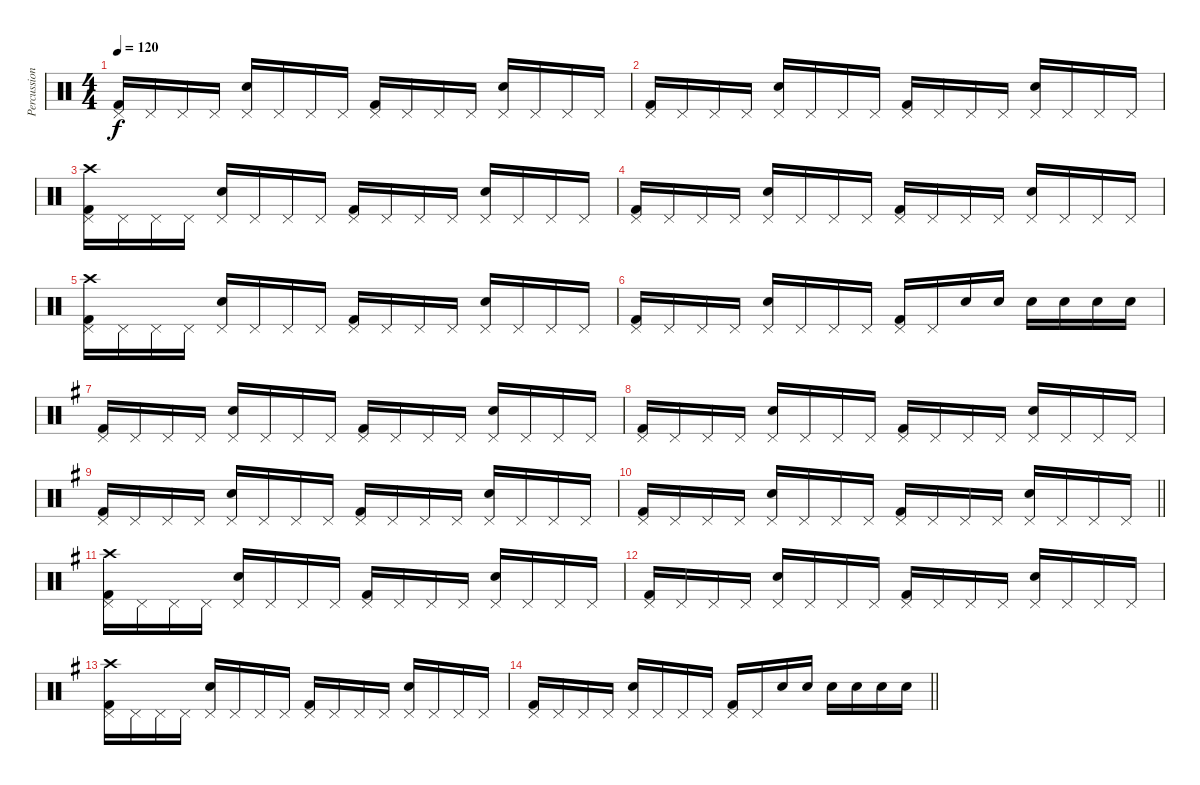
\track ("Percussion" "Percussion") {instrument percussion}
\staff {score}
\articulation defaults
\ts (4 4)
\tempo 120
\clef neutral
\ks c
("Pedal Hi-Hat (hit)" "Kick (hit) 2").16{dy f} "Pedal Hi-Hat (hit)".16 "Pedal Hi-Hat (hit)".16 "Pedal Hi-Hat (hit)".16 ("Pedal Hi-Hat (hit)" "Electric Snare (hit)").16 "Pedal Hi-Hat (hit)".16 "Pedal Hi-Hat (hit)".16 "Pedal Hi-Hat (hit)".16 ("Pedal Hi-Hat (hit)" "Kick (hit) 2").16 "Pedal Hi-Hat (hit)".16 "Pedal Hi-Hat (hit)".16 "Pedal Hi-Hat (hit)".16 ("Pedal Hi-Hat (hit)" "Electric Snare (hit)").16 "Pedal Hi-Hat (hit)".16 "Pedal Hi-Hat (hit)".16 "Pedal Hi-Hat (hit)".16 |
("Pedal Hi-Hat (hit)" "Kick (hit) 2").16 "Pedal Hi-Hat (hit)".16 "Pedal Hi-Hat (hit)".16 "Pedal Hi-Hat (hit)".16 ("Pedal Hi-Hat (hit)" "Electric Snare (hit)").16 "Pedal Hi-Hat (hit)".16 "Pedal Hi-Hat (hit)".16 "Pedal Hi-Hat (hit)".16 ("Pedal Hi-Hat (hit)" "Kick (hit) 2").16 "Pedal Hi-Hat (hit)".16 "Pedal Hi-Hat (hit)".16 "Pedal Hi-Hat (hit)".16 ("Pedal Hi-Hat (hit)" "Electric Snare (hit)").16 "Pedal Hi-Hat (hit)".16 "Pedal Hi-Hat (hit)".16 "Pedal Hi-Hat (hit)".16 |
("Crash high (hit)" "Pedal Hi-Hat (hit)" "Kick (hit) 2").16 "Pedal Hi-Hat (hit)".16 "Pedal Hi-Hat (hit)".16 "Pedal Hi-Hat (hit)".16 ("Pedal Hi-Hat (hit)" "Electric Snare (hit)").16 "Pedal Hi-Hat (hit)".16 "Pedal Hi-Hat (hit)".16 "Pedal Hi-Hat (hit)".16 ("Pedal Hi-Hat (hit)" "Kick (hit) 2").16 "Pedal Hi-Hat (hit)".16 "Pedal Hi-Hat (hit)".16 "Pedal Hi-Hat (hit)".16 ("Pedal Hi-Hat (hit)" "Electric Snare (hit)").16 "Pedal Hi-Hat (hit)".16 "Pedal Hi-Hat (hit)".16 "Pedal Hi-Hat (hit)".16 |
("Pedal Hi-Hat (hit)" "Kick (hit) 2").16 "Pedal Hi-Hat (hit)".16 "Pedal Hi-Hat (hit)".16 "Pedal Hi-Hat (hit)".16 ("Pedal Hi-Hat (hit)" "Electric Snare (hit)").16 "Pedal Hi-Hat (hit)".16 "Pedal Hi-Hat (hit)".16 "Pedal Hi-Hat (hit)".16 ("Pedal Hi-Hat (hit)" "Kick (hit) 2").16 "Pedal Hi-Hat (hit)".16 "Pedal Hi-Hat (hit)".16 "Pedal Hi-Hat (hit)".16 ("Pedal Hi-Hat (hit)" "Electric Snare (hit)").16 "Pedal Hi-Hat (hit)".16 "Pedal Hi-Hat (hit)".16 "Pedal Hi-Hat (hit)".16 |
("Crash high (hit)" "Pedal Hi-Hat (hit)" "Kick (hit) 2").16 "Pedal Hi-Hat (hit)".16 "Pedal Hi-Hat (hit)".16 "Pedal Hi-Hat (hit)".16 ("Pedal Hi-Hat (hit)" "Electric Snare (hit)").16 "Pedal Hi-Hat (hit)".16 "Pedal Hi-Hat (hit)".16 "Pedal Hi-Hat (hit)".16 ("Pedal Hi-Hat (hit)" "Kick (hit) 2").16 "Pedal Hi-Hat (hit)".16 "Pedal Hi-Hat (hit)".16 "Pedal Hi-Hat (hit)".16 ("Pedal Hi-Hat (hit)" "Electric Snare (hit)").16 "Pedal Hi-Hat (hit)".16 "Pedal Hi-Hat (hit)".16 "Pedal Hi-Hat (hit)".16 |
("Pedal Hi-Hat (hit)" "Kick (hit) 2").16 "Pedal Hi-Hat (hit)".16 "Pedal Hi-Hat (hit)".16 "Pedal Hi-Hat (hit)".16 ("Pedal Hi-Hat (hit)" "Electric Snare (hit)").16 "Pedal Hi-Hat (hit)".16 "Pedal Hi-Hat (hit)".16 "Pedal Hi-Hat (hit)".16 ("Pedal Hi-Hat (hit)" "Kick (hit) 2").16 "Pedal Hi-Hat (hit)".16 "Electric Snare (hit)".16 "Electric Snare (hit)".16 "Electric Snare (hit)".16 "Electric Snare (hit)".16 "Electric Snare (hit)".16 "Electric Snare (hit)".16 |
\ks g
("Pedal Hi-Hat (hit)" "Kick (hit) 2").16 "Pedal Hi-Hat (hit)".16 "Pedal Hi-Hat (hit)".16 "Pedal Hi-Hat (hit)".16 ("Pedal Hi-Hat (hit)" "Electric Snare (hit)").16 "Pedal Hi-Hat (hit)".16 "Pedal Hi-Hat (hit)".16 "Pedal Hi-Hat (hit)".16 ("Pedal Hi-Hat (hit)" "Kick (hit) 2").16 "Pedal Hi-Hat (hit)".16 "Pedal Hi-Hat (hit)".16 "Pedal Hi-Hat (hit)".16 ("Pedal Hi-Hat (hit)" "Electric Snare (hit)").16 "Pedal Hi-Hat (hit)".16 "Pedal Hi-Hat (hit)".16 "Pedal Hi-Hat (hit)".16 |
("Pedal Hi-Hat (hit)" "Kick (hit) 2").16 "Pedal Hi-Hat (hit)".16 "Pedal Hi-Hat (hit)".16 "Pedal Hi-Hat (hit)".16 ("Pedal Hi-Hat (hit)" "Electric Snare (hit)").16 "Pedal Hi-Hat (hit)".16 "Pedal Hi-Hat (hit)".16 "Pedal Hi-Hat (hit)".16 ("Pedal Hi-Hat (hit)" "Kick (hit) 2").16 "Pedal Hi-Hat (hit)".16 "Pedal Hi-Hat (hit)".16 "Pedal Hi-Hat (hit)".16 ("Pedal Hi-Hat (hit)" "Electric Snare (hit)").16 "Pedal Hi-Hat (hit)".16 "Pedal Hi-Hat (hit)".16 "Pedal Hi-Hat (hit)".16 |
("Pedal Hi-Hat (hit)" "Kick (hit) 2").16 "Pedal Hi-Hat (hit)".16 "Pedal Hi-Hat (hit)".16 "Pedal Hi-Hat (hit)".16 ("Pedal Hi-Hat (hit)" "Electric Snare (hit)").16 "Pedal Hi-Hat (hit)".16 "Pedal Hi-Hat (hit)".16 "Pedal Hi-Hat (hit)".16 ("Pedal Hi-Hat (hit)" "Kick (hit) 2").16 "Pedal Hi-Hat (hit)".16 "Pedal Hi-Hat (hit)".16 "Pedal Hi-Hat (hit)".16 ("Pedal Hi-Hat (hit)" "Electric Snare (hit)").16 "Pedal Hi-Hat (hit)".16 "Pedal Hi-Hat (hit)".16 "Pedal Hi-Hat (hit)".16 |
\barLineRight lightlight
("Pedal Hi-Hat (hit)" "Kick (hit) 2").16 "Pedal Hi-Hat (hit)".16 "Pedal Hi-Hat (hit)".16 "Pedal Hi-Hat (hit)".16 ("Pedal Hi-Hat (hit)" "Electric Snare (hit)").16 "Pedal Hi-Hat (hit)".16 "Pedal Hi-Hat (hit)".16 "Pedal Hi-Hat (hit)".16 ("Pedal Hi-Hat (hit)" "Kick (hit) 2").16 "Pedal Hi-Hat (hit)".16 "Pedal Hi-Hat (hit)".16 "Pedal Hi-Hat (hit)".16 ("Pedal Hi-Hat (hit)" "Electric Snare (hit)").16 "Pedal Hi-Hat (hit)".16 "Pedal Hi-Hat (hit)".16 "Pedal Hi-Hat (hit)".16 |
("Crash high (hit)" "Pedal Hi-Hat (hit)" "Kick (hit) 2").16 "Pedal Hi-Hat (hit)".16 "Pedal Hi-Hat (hit)".16 "Pedal Hi-Hat (hit)".16 ("Pedal Hi-Hat (hit)" "Electric Snare (hit)").16 "Pedal Hi-Hat (hit)".16 "Pedal Hi-Hat (hit)".16 "Pedal Hi-Hat (hit)".16 ("Pedal Hi-Hat (hit)" "Kick (hit) 2").16 "Pedal Hi-Hat (hit)".16 "Pedal Hi-Hat (hit)".16 "Pedal Hi-Hat (hit)".16 ("Pedal Hi-Hat (hit)" "Electric Snare (hit)").16 "Pedal Hi-Hat (hit)".16 "Pedal Hi-Hat (hit)".16 "Pedal Hi-Hat (hit)".16 |
("Pedal Hi-Hat (hit)" "Kick (hit) 2").16 "Pedal Hi-Hat (hit)".16 "Pedal Hi-Hat (hit)".16 "Pedal Hi-Hat (hit)".16 ("Pedal Hi-Hat (hit)" "Electric Snare (hit)").16 "Pedal Hi-Hat (hit)".16 "Pedal Hi-Hat (hit)".16 "Pedal Hi-Hat (hit)".16 ("Pedal Hi-Hat (hit)" "Kick (hit) 2").16 "Pedal Hi-Hat (hit)".16 "Pedal Hi-Hat (hit)".16 "Pedal Hi-Hat (hit)".16 ("Pedal Hi-Hat (hit)" "Electric Snare (hit)").16 "Pedal Hi-Hat (hit)".16 "Pedal Hi-Hat (hit)".16 "Pedal Hi-Hat (hit)".16 |
("Crash high (hit)" "Pedal Hi-Hat (hit)" "Kick (hit) 2").16 "Pedal Hi-Hat (hit)".16 "Pedal Hi-Hat (hit)".16 "Pedal Hi-Hat (hit)".16 ("Pedal Hi-Hat (hit)" "Electric Snare (hit)").16 "Pedal Hi-Hat (hit)".16 "Pedal Hi-Hat (hit)".16 "Pedal Hi-Hat (hit)".16 ("Pedal Hi-Hat (hit)" "Kick (hit) 2").16 "Pedal Hi-Hat (hit)".16 "Pedal Hi-Hat (hit)".16 "Pedal Hi-Hat (hit)".16 ("Pedal Hi-Hat (hit)" "Electric Snare (hit)").16 "Pedal Hi-Hat (hit)".16 "Pedal Hi-Hat (hit)".16 "Pedal Hi-Hat (hit)".16 |
\barLineRight lightlight
("Pedal Hi-Hat (hit)" "Kick (hit) 2").16 "Pedal Hi-Hat (hit)".16 "Pedal Hi-Hat (hit)".16 "Pedal Hi-Hat (hit)".16 ("Pedal Hi-Hat (hit)" "Electric Snare (hit)").16 "Pedal Hi-Hat (hit)".16 "Pedal Hi-Hat (hit)".16 "Pedal Hi-Hat (hit)".16 ("Pedal Hi-Hat (hit)" "Kick (hit) 2").16 "Pedal Hi-Hat (hit)".16 "Electric Snare (hit)".16 "Electric Snare (hit)".16 "Electric Snare (hit)".16 "Electric Snare (hit)".16 "Electric Snare (hit)".16 "Electric Snare (hit)".16
